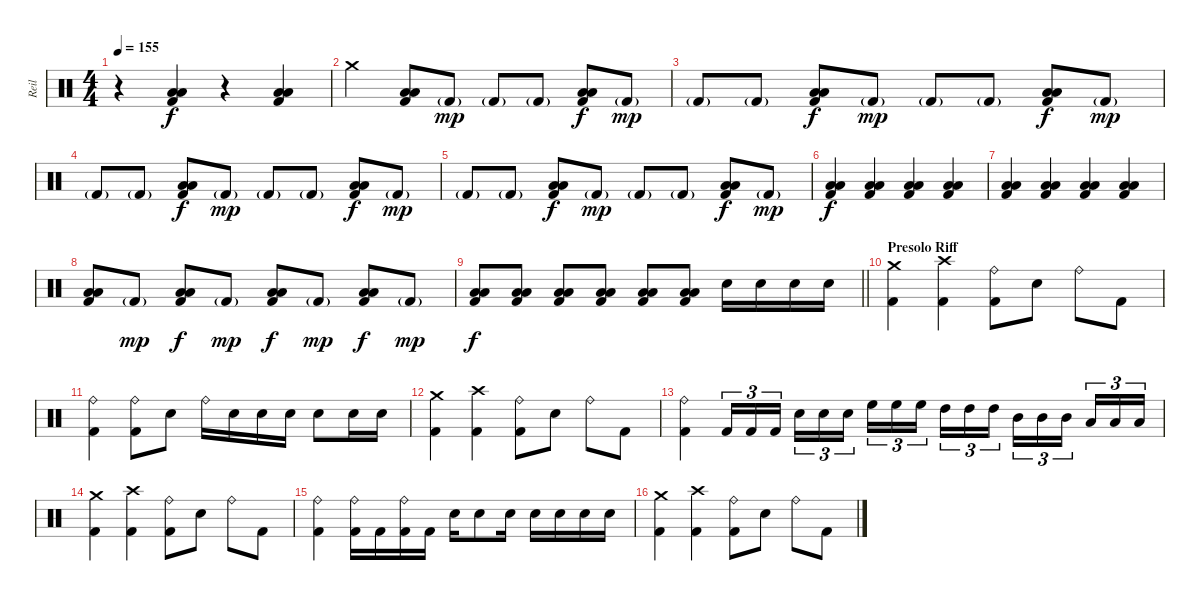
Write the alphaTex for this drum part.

\track ("Reil" "Reil") {instrument percussion}
\staff {score}
\articulation defaults
\ts (4 4)
\tempo 155
\clef neutral
\ks c
r.4{dy f} ("Low Floor Tom (hit)" "Low Floor Tom (hit)" "Kick (hit) 2").4 r.4 ("Low Floor Tom (hit)" "Low Floor Tom (hit)" "Kick (hit) 2").4 |
"Crash medium (hit)".4 ("Low Floor Tom (hit)" "Low Floor Tom (hit)" "Kick (hit) 2").8 "Kick (hit) 2"{g}.8{dy mp} "Kick (hit) 2"{g}.8 "Kick (hit) 2"{g}.8 ("Low Floor Tom (hit)" "Low Floor Tom (hit)" "Kick (hit) 2").8{dy f} "Kick (hit) 2"{g}.8{dy mp} |
"Kick (hit) 2"{g}.8 "Kick (hit) 2"{g}.8 ("Low Floor Tom (hit)" "Low Floor Tom (hit)" "Kick (hit) 2").8{dy f} "Kick (hit) 2"{g}.8{dy mp} "Kick (hit) 2"{g}.8 "Kick (hit) 2"{g}.8 ("Low Floor Tom (hit)" "Low Floor Tom (hit)" "Kick (hit) 2").8{dy f} "Kick (hit) 2"{g}.8{dy mp} |
"Kick (hit) 2"{g}.8 "Kick (hit) 2"{g}.8 ("Low Floor Tom (hit)" "Low Floor Tom (hit)" "Kick (hit) 2").8{dy f} "Kick (hit) 2"{g}.8{dy mp} "Kick (hit) 2"{g}.8 "Kick (hit) 2"{g}.8 ("Low Floor Tom (hit)" "Low Floor Tom (hit)" "Kick (hit) 2").8{dy f} "Kick (hit) 2"{g}.8{dy mp} |
"Kick (hit) 2"{g}.8 "Kick (hit) 2"{g}.8 ("Low Floor Tom (hit)" "Low Floor Tom (hit)" "Kick (hit) 2").8{dy f} "Kick (hit) 2"{g}.8{dy mp} "Kick (hit) 2"{g}.8 "Kick (hit) 2"{g}.8 ("Low Floor Tom (hit)" "Low Floor Tom (hit)" "Kick (hit) 2").8{dy f} "Kick (hit) 2"{g}.8{dy mp} |
("Low Floor Tom (hit)" "Low Floor Tom (hit)" "Kick (hit) 2").4{dy f} ("Low Floor Tom (hit)" "Low Floor Tom (hit)" "Kick (hit) 2").4 ("Low Floor Tom (hit)" "Low Floor Tom (hit)" "Kick (hit) 2").4 ("Low Floor Tom (hit)" "Low Floor Tom (hit)" "Kick (hit) 2").4 |
("Low Floor Tom (hit)" "Low Floor Tom (hit)" "Kick (hit) 2").4 ("Low Floor Tom (hit)" "Low Floor Tom (hit)" "Kick (hit) 2").4 ("Low Floor Tom (hit)" "Low Floor Tom (hit)" "Kick (hit) 2").4 ("Low Floor Tom (hit)" "Low Floor Tom (hit)" "Kick (hit) 2").4 |
("Low Floor Tom (hit)" "Low Floor Tom (hit)" "Kick (hit) 2").8 "Kick (hit) 2"{g}.8{dy mp} ("Low Floor Tom (hit)" "Low Floor Tom (hit)" "Kick (hit) 2").8{dy f} "Kick (hit) 2"{g}.8{dy mp} ("Low Floor Tom (hit)" "Low Floor Tom (hit)" "Kick (hit) 2").8{dy f} "Kick (hit) 2"{g}.8{dy mp} ("Low Floor Tom (hit)" "Low Floor Tom (hit)" "Kick (hit) 2").8{dy f} "Kick (hit) 2"{g}.8{dy mp} |
\barLineRight lightlight
("Low Floor Tom (hit)" "Low Floor Tom (hit)" "Kick (hit) 2").8{dy f} ("Low Floor Tom (hit)" "Low Floor Tom (hit)" "Kick (hit) 2").8 ("Low Floor Tom (hit)" "Low Floor Tom (hit)" "Kick (hit) 2").8 ("Low Floor Tom (hit)" "Low Floor Tom (hit)" "Kick (hit) 2").8 ("Low Floor Tom (hit)" "Low Floor Tom (hit)" "Kick (hit) 2").8 ("Low Floor Tom (hit)" "Low Floor Tom (hit)" "Kick (hit) 2").8 "Electric Snare (hit)".16 "Electric Snare (hit)".16 "Electric Snare (hit)".16 "Electric Snare (hit)".16 |
\section ("" "Presolo Riff")
("Crash medium (hit)" "Kick (hit) 2").4 ("Crash high (hit)" "Kick (hit) 2").4 ("Ride (bell)" "Kick (hit) 2").8 "Electric Snare (hit)".8 "Ride (bell)".8 "Kick (hit) 2".8 |
("Ride (bell)" "Kick (hit) 2").4 ("Ride (bell)" "Kick (hit) 2").8 "Electric Snare (hit)".8 "Ride (bell)".16 "Electric Snare (hit)".16 "Electric Snare (hit)".16 "Electric Snare (hit)".16 "Electric Snare (hit)".8 "Electric Snare (hit)".16 "Electric Snare (hit)".16 |
("Crash medium (hit)" "Kick (hit) 2").4 ("Crash high (hit)" "Kick (hit) 2").4 ("Ride (bell)" "Kick (hit) 2").8 "Electric Snare (hit)".8 "Ride (bell)".8 "Kick (hit) 2".8 |
("Ride (bell)" "Kick (hit) 2").4 "Kick (hit) 2".16{tu (3 2)} "Kick (hit) 2".16{tu (3 2)} "Kick (hit) 2".16{tu (3 2) beam splitsecondary} "Electric Snare (hit)".16{tu (3 2)} "Electric Snare (hit)".16{tu (3 2)} "Electric Snare (hit)".16{tu (3 2)} "High Floor Tom (hit)".16{tu (3 2)} "High Floor Tom (hit)".16{tu (3 2)} "High Floor Tom (hit)".16{tu (3 2) beam splitsecondary} "High Tom (hit)".16{tu (3 2)} "High Tom (hit)".16{tu (3 2)} "High Tom (hit)".16{tu (3 2)} "Mid Tom (hit)".16{tu (3 2)} "Mid Tom (hit)".16{tu (3 2)} "Mid Tom (hit)".16{tu (3 2) beam splitsecondary} "Low Tom (hit)".16{tu (3 2)} "Low Tom (hit)".16{tu (3 2)} "Low Tom (hit)".16{tu (3 2)} |
("Crash medium (hit)" "Kick (hit) 2").4 ("Crash high (hit)" "Kick (hit) 2").4 ("Ride (bell)" "Kick (hit) 2").8 "Electric Snare (hit)".8 "Ride (bell)".8 "Kick (hit) 2".8 |
("Ride (bell)" "Kick (hit) 2").4 ("Ride (bell)" "Kick (hit) 2").16 "Kick (hit) 2".16 ("Ride (bell)" "Kick (hit) 2").16 "Kick (hit) 2".16 "Electric Snare (hit)".16 "Electric Snare (hit)".8 "Electric Snare (hit)".16 "Electric Snare (hit)".16 "Electric Snare (hit)".16 "Electric Snare (hit)".16 "Electric Snare (hit)".16 |
("Crash medium (hit)" "Kick (hit) 2").4 ("Crash high (hit)" "Kick (hit) 2").4 ("Ride (bell)" "Kick (hit) 2").8 "Electric Snare (hit)".8 "Ride (bell)".8 "Kick (hit) 2".8
